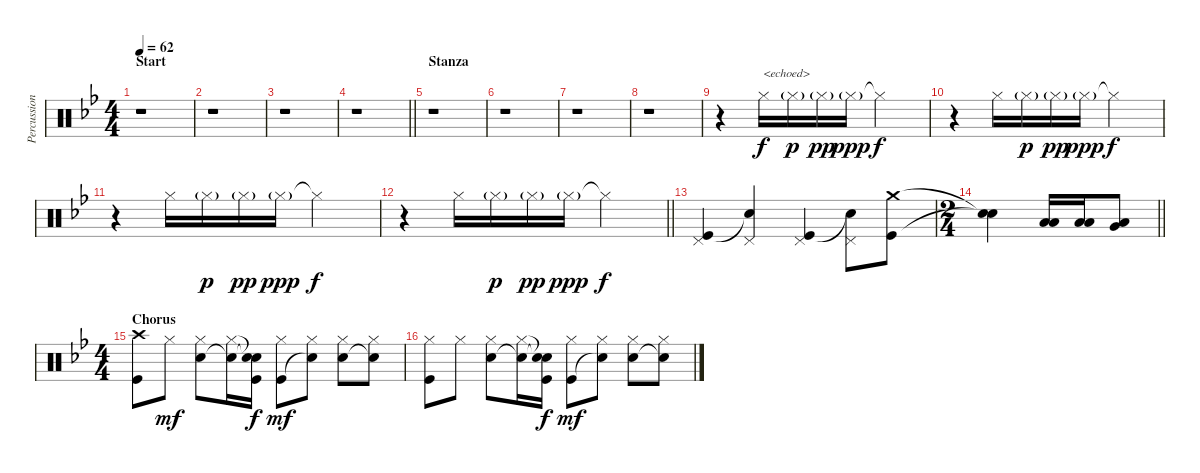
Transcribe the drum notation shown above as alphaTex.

\track ("Percussion" "Percussion") {instrument percussion}
\staff {score}
\articulation defaults
\ts (4 4)
\section ("" "Start")
\tempo 62
\clef neutral
\ks bb
r.1{dy f} |
r.1 |
r.1 |
\barLineRight lightlight
r.1 |
\section ("" "Stanza")
r.1 |
r.1 |
r.1 |
r.1 |
r.4 "Hi-Hat (closed)".16{txt "<echoed>"} "Hi-Hat (closed)"{g}.16{dy p} "Hi-Hat (closed)"{g}.16{dy pp} "Hi-Hat (closed)"{g}.16{dy ppp} "Hi-Hat (closed)"{t}.2{dy f} |
r.4 "Hi-Hat (closed)".16 "Hi-Hat (closed)"{g}.16{dy p} "Hi-Hat (closed)"{g}.16{dy pp} "Hi-Hat (closed)"{g}.16{dy ppp} "Hi-Hat (closed)"{t}.2{dy f} |
r.4 "Hi-Hat (closed)".16 "Hi-Hat (closed)"{g}.16{dy p} "Hi-Hat (closed)"{g}.16{dy pp} "Hi-Hat (closed)"{g}.16{dy ppp} "Hi-Hat (closed)"{t}.2{dy f} |
\barLineRight lightlight
r.4 "Hi-Hat (closed)".16 "Hi-Hat (closed)"{g}.16{dy p} "Hi-Hat (closed)"{g}.16{dy pp} "Hi-Hat (closed)"{g}.16{dy ppp} "Hi-Hat (closed)"{t}.2{dy f} |
("Pedal Hi-Hat (hit)" "Kick (hit)").4 ("Pedal Hi-Hat (hit)" "Snare (hit)"{t}).4 ("Pedal Hi-Hat (hit)" "Kick (hit)").4 ("Pedal Hi-Hat (hit)" "Snare (hit)"{t}).8 ("Crash medium (hit)" "Kick (hit)").8 |
\ts (2 4)
\barLineRight lightlight
("Snare (hit)"{t} "Snare (hit)"{t}).4 ("Low Floor Tom (hit)" "Low Tom (hit)").16 ("Low Floor Tom (hit)" "Low Tom (hit)").16 ("Low Floor Tom (hit)" "Very Low Tom (hit)").8 |
\ts (4 4)
\section ("" "Chorus")
("Crash high (hit)" "Kick (hit)").8 "Hi-Hat (closed)".8{dy mf} ("Hi-Hat (closed)" "Snare (hit) 2").8 ("Hi-Hat (closed)" "Snare (hit)"{t}).16 ("Snare (hit)"{t} "Snare (hit)"{t} "Kick (hit)").16{dy f} ("Hi-Hat (closed)" "Kick (hit)").8{dy mf} ("Hi-Hat (closed)" "Snare (hit)"{t}).8 ("Hi-Hat (closed)" "Snare (hit) 2").8 ("Hi-Hat (closed)" "Snare (hit)"{t}).8 |
("Hi-Hat (closed)" "Kick (hit)").8 "Hi-Hat (closed)".8 ("Hi-Hat (closed)" "Snare (hit) 2").8 ("Hi-Hat (closed)" "Snare (hit)"{t}).16 ("Snare (hit)"{t} "Snare (hit)"{t} "Kick (hit)").16{dy f} ("Hi-Hat (closed)" "Kick (hit)").8{dy mf} ("Hi-Hat (closed)" "Snare (hit)"{t}).8 ("Hi-Hat (closed)" "Snare (hit) 2").8 ("Hi-Hat (closed)" "Snare (hit)"{t}).8
